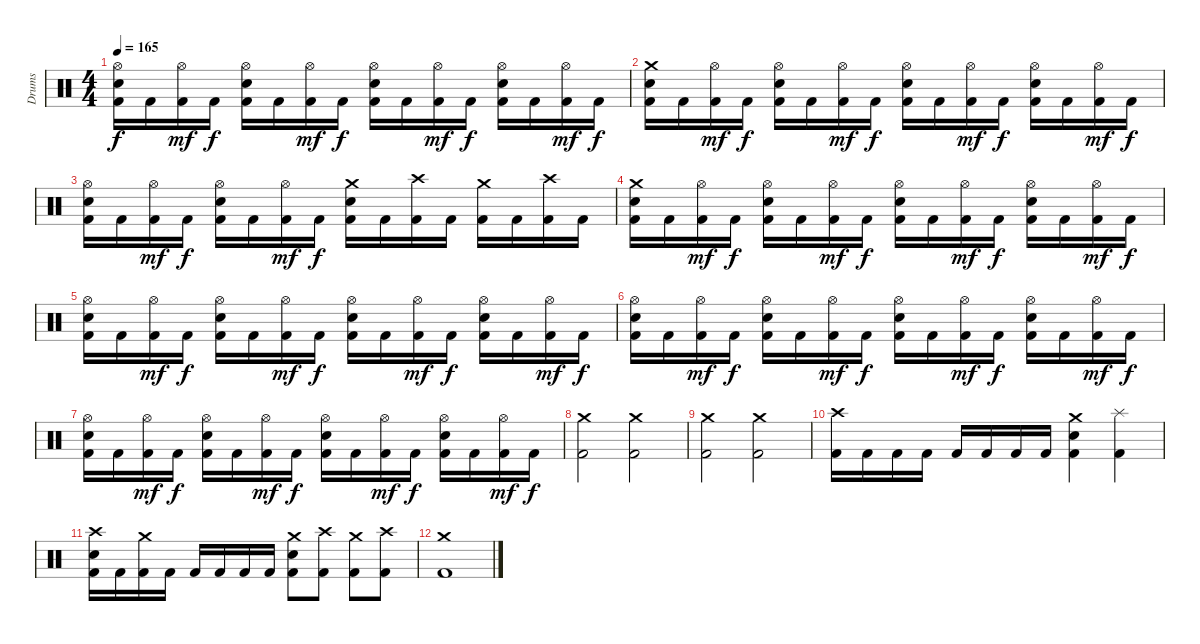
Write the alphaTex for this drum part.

\track ("Drums" "Drums") {instrument percussion}
\staff {score}
\articulation defaults
\ts (4 4)
\tempo 165
\clef neutral
\ks c
("Kick (hit) 2" "Electric Snare (hit)" "Hi-Hat (open)").16{dy f} "Kick (hit) 2".16 ("Kick (hit) 2" "Hi-Hat (open)").16{dy mf} "Kick (hit) 2".16{dy f} ("Kick (hit) 2" "Electric Snare (hit)" "Hi-Hat (open)").16 "Kick (hit) 2".16 ("Kick (hit) 2" "Hi-Hat (open)").16{dy mf} "Kick (hit) 2".16{dy f} ("Kick (hit) 2" "Electric Snare (hit)" "Hi-Hat (open)").16 "Kick (hit) 2".16 ("Kick (hit) 2" "Hi-Hat (open)").16{dy mf} "Kick (hit) 2".16{dy f} ("Kick (hit) 2" "Electric Snare (hit)" "Hi-Hat (open)").16 "Kick (hit) 2".16 ("Kick (hit) 2" "Hi-Hat (open)").16{dy mf} "Kick (hit) 2".16{dy f} |
("Kick (hit) 2" "Electric Snare (hit)" "Crash medium (hit)").16 "Kick (hit) 2".16 ("Kick (hit) 2" "Hi-Hat (open)").16{dy mf} "Kick (hit) 2".16{dy f} ("Kick (hit) 2" "Electric Snare (hit)" "Hi-Hat (open)").16 "Kick (hit) 2".16 ("Kick (hit) 2" "Hi-Hat (open)").16{dy mf} "Kick (hit) 2".16{dy f} ("Kick (hit) 2" "Electric Snare (hit)" "Hi-Hat (open)").16 "Kick (hit) 2".16 ("Kick (hit) 2" "Hi-Hat (open)").16{dy mf} "Kick (hit) 2".16{dy f} ("Kick (hit) 2" "Electric Snare (hit)" "Hi-Hat (open)").16 "Kick (hit) 2".16 ("Kick (hit) 2" "Hi-Hat (open)").16{dy mf} "Kick (hit) 2".16{dy f} |
("Kick (hit) 2" "Electric Snare (hit)" "Hi-Hat (open)").16 "Kick (hit) 2".16 ("Kick (hit) 2" "Hi-Hat (open)").16{dy mf} "Kick (hit) 2".16{dy f} ("Kick (hit) 2" "Electric Snare (hit)" "Hi-Hat (open)").16 "Kick (hit) 2".16 ("Kick (hit) 2" "Hi-Hat (open)").16{dy mf} "Kick (hit) 2".16{dy f} ("Kick (hit) 2" "Electric Snare (hit)" "Crash medium (hit)").16 "Kick (hit) 2".16 ("Kick (hit) 2" "Crash high (hit)").16 "Kick (hit) 2".16 ("Kick (hit) 2" "Crash medium (hit)").16 "Kick (hit) 2".16 ("Kick (hit) 2" "Crash high (hit)").16 "Kick (hit) 2".16 |
("Kick (hit) 2" "Electric Snare (hit)" "Crash medium (hit)").16 "Kick (hit) 2".16 ("Kick (hit) 2" "Hi-Hat (open)").16{dy mf} "Kick (hit) 2".16{dy f} ("Kick (hit) 2" "Electric Snare (hit)" "Hi-Hat (open)").16 "Kick (hit) 2".16 ("Kick (hit) 2" "Hi-Hat (open)").16{dy mf} "Kick (hit) 2".16{dy f} ("Kick (hit) 2" "Electric Snare (hit)" "Hi-Hat (open)").16 "Kick (hit) 2".16 ("Kick (hit) 2" "Hi-Hat (open)").16{dy mf} "Kick (hit) 2".16{dy f} ("Kick (hit) 2" "Electric Snare (hit)" "Hi-Hat (open)").16 "Kick (hit) 2".16 ("Kick (hit) 2" "Hi-Hat (open)").16{dy mf} "Kick (hit) 2".16{dy f} |
("Kick (hit) 2" "Electric Snare (hit)" "Hi-Hat (open)").16 "Kick (hit) 2".16 ("Kick (hit) 2" "Hi-Hat (open)").16{dy mf} "Kick (hit) 2".16{dy f} ("Kick (hit) 2" "Electric Snare (hit)" "Hi-Hat (open)").16 "Kick (hit) 2".16 ("Kick (hit) 2" "Hi-Hat (open)").16{dy mf} "Kick (hit) 2".16{dy f} ("Kick (hit) 2" "Electric Snare (hit)" "Hi-Hat (open)").16 "Kick (hit) 2".16 ("Kick (hit) 2" "Hi-Hat (open)").16{dy mf} "Kick (hit) 2".16{dy f} ("Kick (hit) 2" "Electric Snare (hit)" "Hi-Hat (open)").16 "Kick (hit) 2".16 ("Kick (hit) 2" "Hi-Hat (open)").16{dy mf} "Kick (hit) 2".16{dy f} |
("Kick (hit) 2" "Electric Snare (hit)" "Hi-Hat (open)").16 "Kick (hit) 2".16 ("Kick (hit) 2" "Hi-Hat (open)").16{dy mf} "Kick (hit) 2".16{dy f} ("Kick (hit) 2" "Electric Snare (hit)" "Hi-Hat (open)").16 "Kick (hit) 2".16 ("Kick (hit) 2" "Hi-Hat (open)").16{dy mf} "Kick (hit) 2".16{dy f} ("Kick (hit) 2" "Electric Snare (hit)" "Hi-Hat (open)").16 "Kick (hit) 2".16 ("Kick (hit) 2" "Hi-Hat (open)").16{dy mf} "Kick (hit) 2".16{dy f} ("Kick (hit) 2" "Electric Snare (hit)" "Hi-Hat (open)").16 "Kick (hit) 2".16 ("Kick (hit) 2" "Hi-Hat (open)").16{dy mf} "Kick (hit) 2".16{dy f} |
("Kick (hit) 2" "Electric Snare (hit)" "Hi-Hat (open)").16 "Kick (hit) 2".16 ("Kick (hit) 2" "Hi-Hat (open)").16{dy mf} "Kick (hit) 2".16{dy f} ("Kick (hit) 2" "Electric Snare (hit)" "Hi-Hat (open)").16 "Kick (hit) 2".16 ("Kick (hit) 2" "Hi-Hat (open)").16{dy mf} "Kick (hit) 2".16{dy f} ("Kick (hit) 2" "Electric Snare (hit)" "Hi-Hat (open)").16 "Kick (hit) 2".16 ("Kick (hit) 2" "Hi-Hat (open)").16{dy mf} "Kick (hit) 2".16{dy f} ("Kick (hit) 2" "Electric Snare (hit)" "Hi-Hat (open)").16 "Kick (hit) 2".16 ("Kick (hit) 2" "Hi-Hat (open)").16{dy mf} "Kick (hit) 2".16{dy f} |
("Kick (hit) 2" "Crash medium (hit)").2 ("Kick (hit) 2" "Crash medium (hit)").2 |
("Kick (hit) 2" "Crash medium (hit)").2 ("Kick (hit) 2" "Crash medium (hit)").2 |
("Kick (hit) 2" "Crash high (hit)").16 "Kick (hit) 2".16 "Kick (hit) 2".16 "Kick (hit) 2".16 "Kick (hit) 2".16 "Kick (hit) 2".16 "Kick (hit) 2".16 "Kick (hit) 2".16 ("Kick (hit) 2" "Electric Snare (hit)" "Crash medium (hit)").4 ("Kick (hit) 2" "Splash (hit)").4 |
("Kick (hit) 2" "Electric Snare (hit)" "Crash high (hit)").16 "Kick (hit) 2".16 ("Kick (hit) 2" "Crash medium (hit)").16 "Kick (hit) 2".16 "Kick (hit) 2".16 "Kick (hit) 2".16 "Kick (hit) 2".16 "Kick (hit) 2".16 ("Kick (hit) 2" "Electric Snare (hit)" "Crash medium (hit)").8 ("Kick (hit) 2" "Crash high (hit)").8 ("Kick (hit) 2" "Crash medium (hit)").8 ("Kick (hit) 2" "Crash high (hit)").8 |
("Kick (hit) 2" "Crash medium (hit)").1
